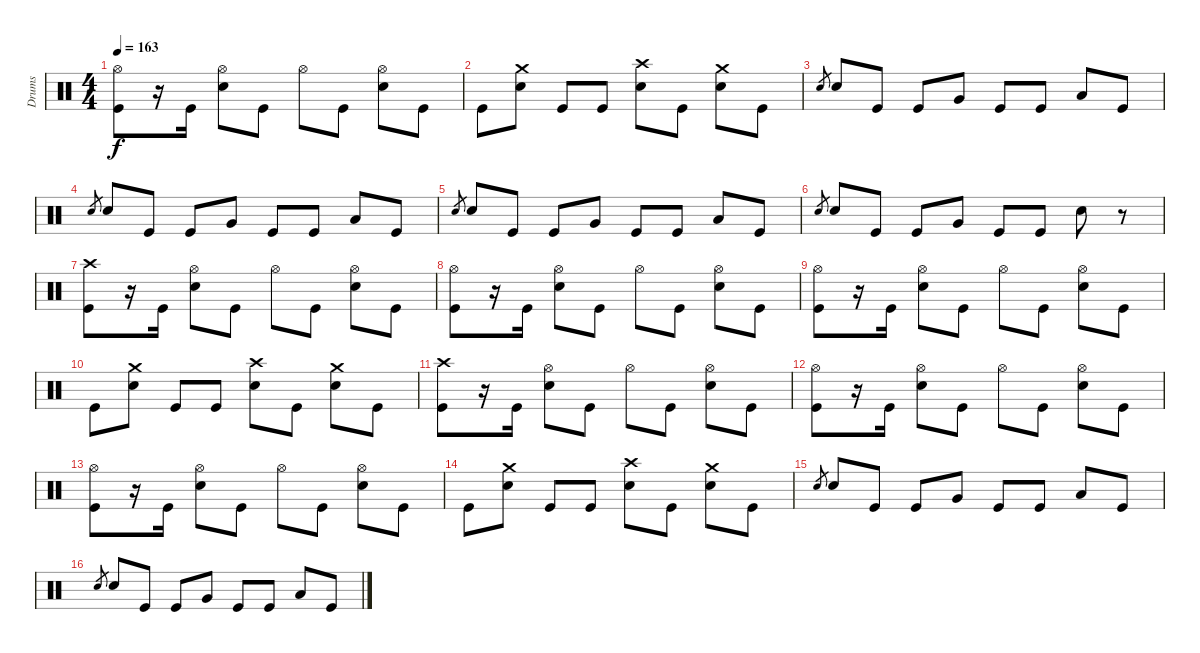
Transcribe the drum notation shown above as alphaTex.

\track ("Drums" "Drums") {instrument percussion}
\staff {score}
\articulation defaults
\ts (4 4)
\tempo 163
\clef neutral
\ks c
("Hi-Hat (open)" "Kick (hit)").8{dy f} r.16 "Kick (hit)".16 ("Hi-Hat (open)" "Snare (hit) 2").8 "Kick (hit)".8 "Hi-Hat (open)".8 "Kick (hit)".8 ("Hi-Hat (open)" "Snare (hit) 2").8 "Kick (hit)".8 |
"Kick (hit)".8 ("Crash medium (hit)" "Snare (hit) 2").8 "Kick (hit)".8 "Kick (hit)".8 ("Crash high (hit)" "Snare (hit) 2").8 "Kick (hit)".8 ("Crash medium (hit)" "Snare (hit) 2").8 "Kick (hit)".8 |
"Snare (hit) 2".8{gr} "Snare (hit) 2".8 "Kick (hit)".8 "Kick (hit)".8 "Very Low Tom (hit)".8 "Kick (hit)".8 "Kick (hit)".8 "Low Floor Tom (hit)".8 "Kick (hit)".8 |
"Snare (hit) 2".8{gr} "Snare (hit) 2".8 "Kick (hit)".8 "Kick (hit)".8 "Very Low Tom (hit)".8 "Kick (hit)".8 "Kick (hit)".8 "Low Floor Tom (hit)".8 "Kick (hit)".8 |
"Snare (hit) 2".8{gr} "Snare (hit) 2".8 "Kick (hit)".8 "Kick (hit)".8 "Very Low Tom (hit)".8 "Kick (hit)".8 "Kick (hit)".8 "Low Floor Tom (hit)".8 "Kick (hit)".8 |
"Snare (hit) 2".8{gr} "Snare (hit) 2".8 "Kick (hit)".8 "Kick (hit)".8 "Very Low Tom (hit)".8 "Kick (hit)".8 "Kick (hit)".8 "Snare (hit) 2".8 r.8 |
("Crash high (hit)" "Kick (hit)").8 r.16 "Kick (hit)".16 ("Hi-Hat (open)" "Snare (hit) 2").8 "Kick (hit)".8 "Hi-Hat (open)".8 "Kick (hit)".8 ("Hi-Hat (open)" "Snare (hit) 2").8 "Kick (hit)".8 |
("Hi-Hat (open)" "Kick (hit)").8 r.16 "Kick (hit)".16 ("Hi-Hat (open)" "Snare (hit) 2").8 "Kick (hit)".8 "Hi-Hat (open)".8 "Kick (hit)".8 ("Hi-Hat (open)" "Snare (hit) 2").8 "Kick (hit)".8 |
("Hi-Hat (open)" "Kick (hit)").8 r.16 "Kick (hit)".16 ("Hi-Hat (open)" "Snare (hit) 2").8 "Kick (hit)".8 "Hi-Hat (open)".8 "Kick (hit)".8 ("Hi-Hat (open)" "Snare (hit) 2").8 "Kick (hit)".8 |
"Kick (hit)".8 ("Crash medium (hit)" "Snare (hit) 2").8 "Kick (hit)".8 "Kick (hit)".8 ("Crash high (hit)" "Snare (hit) 2").8 "Kick (hit)".8 ("Crash medium (hit)" "Snare (hit) 2").8 "Kick (hit)".8 |
("Crash high (hit)" "Kick (hit)").8 r.16 "Kick (hit)".16 ("Hi-Hat (open)" "Snare (hit) 2").8 "Kick (hit)".8 "Hi-Hat (open)".8 "Kick (hit)".8 ("Hi-Hat (open)" "Snare (hit) 2").8 "Kick (hit)".8 |
("Hi-Hat (open)" "Kick (hit)").8 r.16 "Kick (hit)".16 ("Hi-Hat (open)" "Snare (hit) 2").8 "Kick (hit)".8 "Hi-Hat (open)".8 "Kick (hit)".8 ("Hi-Hat (open)" "Snare (hit) 2").8 "Kick (hit)".8 |
("Hi-Hat (open)" "Kick (hit)").8 r.16 "Kick (hit)".16 ("Hi-Hat (open)" "Snare (hit) 2").8 "Kick (hit)".8 "Hi-Hat (open)".8 "Kick (hit)".8 ("Hi-Hat (open)" "Snare (hit) 2").8 "Kick (hit)".8 |
"Kick (hit)".8 ("Crash medium (hit)" "Snare (hit) 2").8 "Kick (hit)".8 "Kick (hit)".8 ("Crash high (hit)" "Snare (hit) 2").8 "Kick (hit)".8 ("Crash medium (hit)" "Snare (hit) 2").8 "Kick (hit)".8 |
"Snare (hit) 2".8{gr} "Snare (hit) 2".8 "Kick (hit)".8 "Kick (hit)".8 "Very Low Tom (hit)".8 "Kick (hit)".8 "Kick (hit)".8 "Low Floor Tom (hit)".8 "Kick (hit)".8 |
"Snare (hit) 2".8{gr} "Snare (hit) 2".8 "Kick (hit)".8 "Kick (hit)".8 "Very Low Tom (hit)".8 "Kick (hit)".8 "Kick (hit)".8 "Low Floor Tom (hit)".8 "Kick (hit)".8
